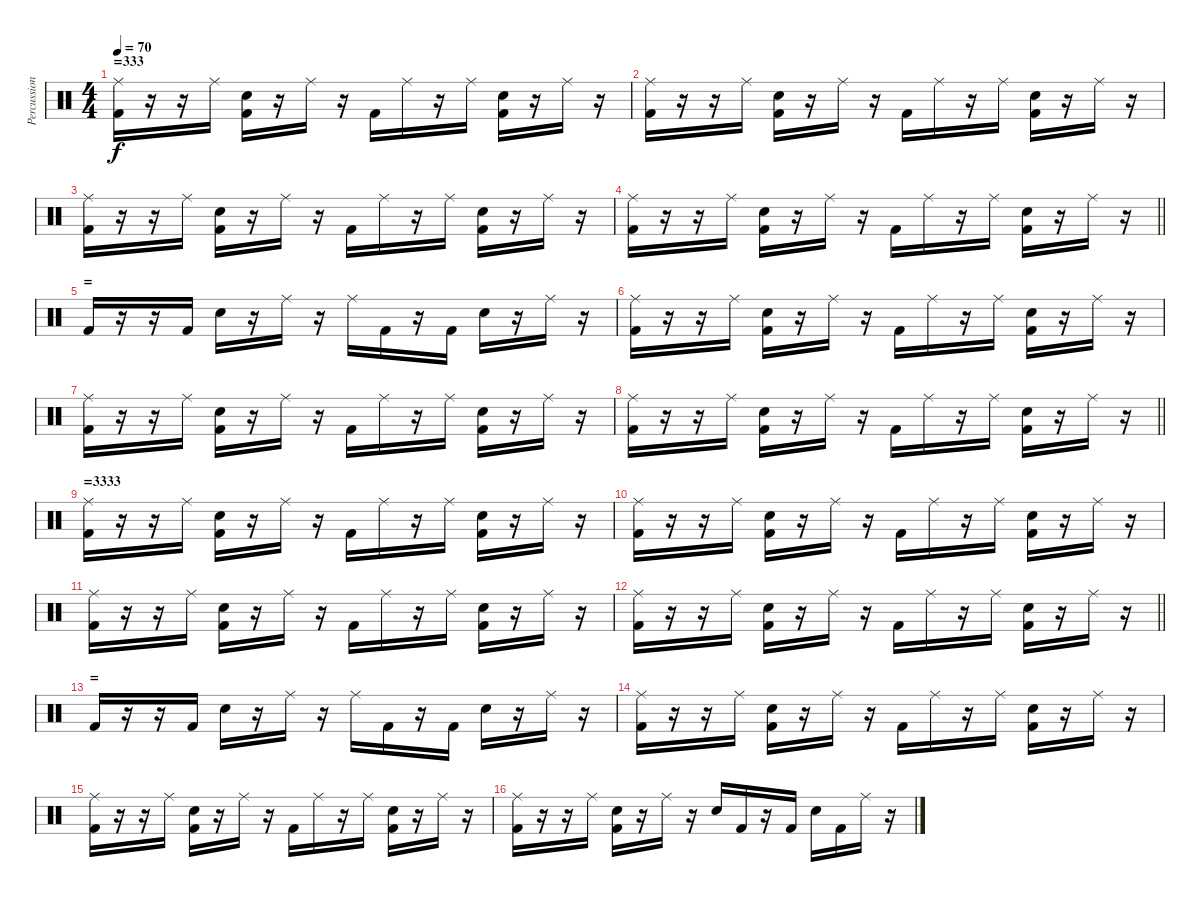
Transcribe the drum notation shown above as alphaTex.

\track ("Percussion" "Percussion") {instrument percussion}
\staff {score}
\articulation defaults
\ts (4 4)
\section ("" "=333")
\tempo 70
\clef neutral
\ks c
("Kick (hit) 2" "Ride (middle)").16{dy f} r.16 r.16 "Ride (middle)".16 ("Kick (hit) 2" "Electric Snare (hit)").16 r.16 "Ride (middle)".16 r.16 "Kick (hit) 2".16 "Ride (middle)".16 r.16 "Ride (middle)".16 ("Kick (hit) 2" "Electric Snare (hit)").16 r.16 "Ride (middle)".16 r.16 |
("Kick (hit) 2" "Ride (middle)").16 r.16 r.16 "Ride (middle)".16 ("Kick (hit) 2" "Electric Snare (hit)").16 r.16 "Ride (middle)".16 r.16 "Kick (hit) 2".16 "Ride (middle)".16 r.16 "Ride (middle)".16 ("Kick (hit) 2" "Electric Snare (hit)").16 r.16 "Ride (middle)".16 r.16 |
("Kick (hit) 2" "Ride (middle)").16 r.16 r.16 "Ride (middle)".16 ("Kick (hit) 2" "Electric Snare (hit)").16 r.16 "Ride (middle)".16 r.16 "Kick (hit) 2".16 "Ride (middle)".16 r.16 "Ride (middle)".16 ("Kick (hit) 2" "Electric Snare (hit)").16 r.16 "Ride (middle)".16 r.16 |
\barLineRight lightlight
("Kick (hit) 2" "Ride (middle)").16 r.16 r.16 "Ride (middle)".16 ("Kick (hit) 2" "Electric Snare (hit)").16 r.16 "Ride (middle)".16 r.16 "Kick (hit) 2".16 "Ride (middle)".16 r.16 "Ride (middle)".16 ("Kick (hit) 2" "Electric Snare (hit)").16 r.16 "Ride (middle)".16 r.16 |
\section ("" "=")
"Kick (hit) 2".16 r.16 r.16 "Kick (hit) 2".16 "Electric Snare (hit)".16 r.16 "Ride (middle)".16 r.16 "Ride (middle)".16 "Kick (hit) 2".16 r.16 "Kick (hit) 2".16 "Electric Snare (hit)".16 r.16 "Ride (middle)".16 r.16 |
("Kick (hit) 2" "Ride (middle)").16 r.16 r.16 "Ride (middle)".16 ("Kick (hit) 2" "Electric Snare (hit)").16 r.16 "Ride (middle)".16 r.16 "Kick (hit) 2".16 "Ride (middle)".16 r.16 "Ride (middle)".16 ("Kick (hit) 2" "Electric Snare (hit)").16 r.16 "Ride (middle)".16 r.16 |
("Kick (hit) 2" "Ride (middle)").16 r.16 r.16 "Ride (middle)".16 ("Kick (hit) 2" "Electric Snare (hit)").16 r.16 "Ride (middle)".16 r.16 "Kick (hit) 2".16 "Ride (middle)".16 r.16 "Ride (middle)".16 ("Kick (hit) 2" "Electric Snare (hit)").16 r.16 "Ride (middle)".16 r.16 |
\barLineRight lightlight
("Kick (hit) 2" "Ride (middle)").16 r.16 r.16 "Ride (middle)".16 ("Kick (hit) 2" "Electric Snare (hit)").16 r.16 "Ride (middle)".16 r.16 "Kick (hit) 2".16 "Ride (middle)".16 r.16 "Ride (middle)".16 ("Kick (hit) 2" "Electric Snare (hit)").16 r.16 "Ride (middle)".16 r.16 |
\section ("" "=3333")
("Kick (hit) 2" "Ride (middle)").16 r.16 r.16 "Ride (middle)".16 ("Kick (hit) 2" "Electric Snare (hit)").16 r.16 "Ride (middle)".16 r.16 "Kick (hit) 2".16 "Ride (middle)".16 r.16 "Ride (middle)".16 ("Kick (hit) 2" "Electric Snare (hit)").16 r.16 "Ride (middle)".16 r.16 |
("Kick (hit) 2" "Ride (middle)").16 r.16 r.16 "Ride (middle)".16 ("Kick (hit) 2" "Electric Snare (hit)").16 r.16 "Ride (middle)".16 r.16 "Kick (hit) 2".16 "Ride (middle)".16 r.16 "Ride (middle)".16 ("Kick (hit) 2" "Electric Snare (hit)").16 r.16 "Ride (middle)".16 r.16 |
("Kick (hit) 2" "Ride (middle)").16 r.16 r.16 "Ride (middle)".16 ("Kick (hit) 2" "Electric Snare (hit)").16 r.16 "Ride (middle)".16 r.16 "Kick (hit) 2".16 "Ride (middle)".16 r.16 "Ride (middle)".16 ("Kick (hit) 2" "Electric Snare (hit)").16 r.16 "Ride (middle)".16 r.16 |
\barLineRight lightlight
("Kick (hit) 2" "Ride (middle)").16 r.16 r.16 "Ride (middle)".16 ("Kick (hit) 2" "Electric Snare (hit)").16 r.16 "Ride (middle)".16 r.16 "Kick (hit) 2".16 "Ride (middle)".16 r.16 "Ride (middle)".16 ("Kick (hit) 2" "Electric Snare (hit)").16 r.16 "Ride (middle)".16 r.16 |
\section ("" "=")
"Kick (hit) 2".16 r.16 r.16 "Kick (hit) 2".16 "Electric Snare (hit)".16 r.16 "Ride (middle)".16 r.16 "Ride (middle)".16 "Kick (hit) 2".16 r.16 "Kick (hit) 2".16 "Electric Snare (hit)".16 r.16 "Ride (middle)".16 r.16 |
("Kick (hit) 2" "Ride (middle)").16 r.16 r.16 "Ride (middle)".16 ("Kick (hit) 2" "Electric Snare (hit)").16 r.16 "Ride (middle)".16 r.16 "Kick (hit) 2".16 "Ride (middle)".16 r.16 "Ride (middle)".16 ("Kick (hit) 2" "Electric Snare (hit)").16 r.16 "Ride (middle)".16 r.16 |
("Kick (hit) 2" "Ride (middle)").16 r.16 r.16 "Ride (middle)".16 ("Kick (hit) 2" "Electric Snare (hit)").16 r.16 "Ride (middle)".16 r.16 "Kick (hit) 2".16 "Ride (middle)".16 r.16 "Ride (middle)".16 ("Kick (hit) 2" "Electric Snare (hit)").16 r.16 "Ride (middle)".16 r.16 |
("Kick (hit) 2" "Ride (middle)").16 r.16 r.16 "Ride (middle)".16 ("Kick (hit) 2" "Electric Snare (hit)").16 r.16 "Ride (middle)".16 r.16 "Electric Snare (hit)".16 "Kick (hit) 2".16 r.16 "Kick (hit) 2".16 "Electric Snare (hit)".16 "Kick (hit) 2".16 "Ride (middle)".16 r.16
